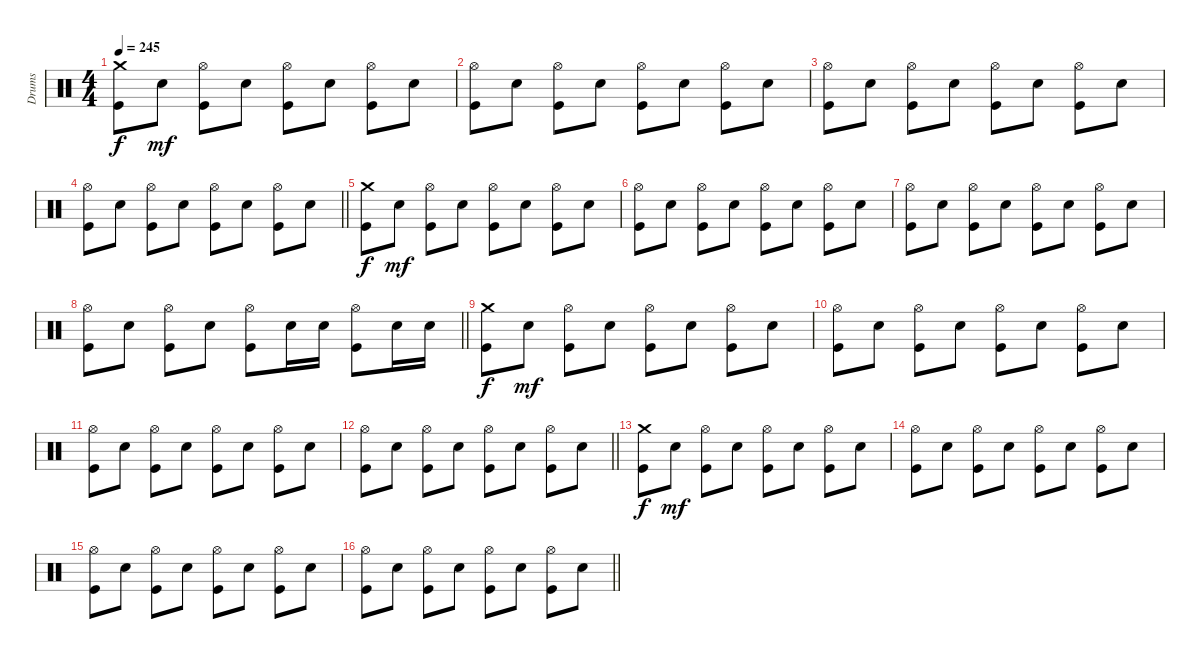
\track ("Drums" "Drums") {instrument percussion}
\staff {score}
\articulation defaults
\ts (4 4)
\tempo 245
\clef neutral
\ks c
("Crash medium (hit)" "Kick (hit)").8{dy f} "Snare (hit) 2".8{dy mf} ("Hi-Hat (open)" "Kick (hit)").8 "Snare (hit) 2".8 ("Hi-Hat (open)" "Kick (hit)").8 "Snare (hit) 2".8 ("Hi-Hat (open)" "Kick (hit)").8 "Snare (hit) 2".8 |
("Hi-Hat (open)" "Kick (hit)").8 "Snare (hit) 2".8 ("Hi-Hat (open)" "Kick (hit)").8 "Snare (hit) 2".8 ("Hi-Hat (open)" "Kick (hit)").8 "Snare (hit) 2".8 ("Hi-Hat (open)" "Kick (hit)").8 "Snare (hit) 2".8 |
("Hi-Hat (open)" "Kick (hit)").8 "Snare (hit) 2".8 ("Hi-Hat (open)" "Kick (hit)").8 "Snare (hit) 2".8 ("Hi-Hat (open)" "Kick (hit)").8 "Snare (hit) 2".8 ("Hi-Hat (open)" "Kick (hit)").8 "Snare (hit) 2".8 |
\barLineRight lightlight
("Hi-Hat (open)" "Kick (hit)").8 "Snare (hit) 2".8 ("Hi-Hat (open)" "Kick (hit)").8 "Snare (hit) 2".8 ("Hi-Hat (open)" "Kick (hit)").8 "Snare (hit) 2".8 ("Hi-Hat (open)" "Kick (hit)").8 "Snare (hit) 2".8 |
("Crash medium (hit)" "Kick (hit)").8{dy f} "Snare (hit) 2".8{dy mf} ("Hi-Hat (open)" "Kick (hit)").8 "Snare (hit) 2".8 ("Hi-Hat (open)" "Kick (hit)").8 "Snare (hit) 2".8 ("Hi-Hat (open)" "Kick (hit)").8 "Snare (hit) 2".8 |
("Hi-Hat (open)" "Kick (hit)").8 "Snare (hit) 2".8 ("Hi-Hat (open)" "Kick (hit)").8 "Snare (hit) 2".8 ("Hi-Hat (open)" "Kick (hit)").8 "Snare (hit) 2".8 ("Hi-Hat (open)" "Kick (hit)").8 "Snare (hit) 2".8 |
("Hi-Hat (open)" "Kick (hit)").8 "Snare (hit) 2".8 ("Hi-Hat (open)" "Kick (hit)").8 "Snare (hit) 2".8 ("Hi-Hat (open)" "Kick (hit)").8 "Snare (hit) 2".8 ("Hi-Hat (open)" "Kick (hit)").8 "Snare (hit) 2".8 |
\barLineRight lightlight
("Hi-Hat (open)" "Kick (hit)").8 "Snare (hit) 2".8 ("Hi-Hat (open)" "Kick (hit)").8 "Snare (hit) 2".8 ("Hi-Hat (open)" "Kick (hit)").8 "Snare (hit) 2".16 "Snare (hit) 2".16 ("Hi-Hat (open)" "Kick (hit)").8 "Snare (hit) 2".16 "Snare (hit) 2".16 |
("Crash medium (hit)" "Kick (hit)").8{dy f} "Snare (hit) 2".8{dy mf} ("Hi-Hat (open)" "Kick (hit)").8 "Snare (hit) 2".8 ("Hi-Hat (open)" "Kick (hit)").8 "Snare (hit) 2".8 ("Hi-Hat (open)" "Kick (hit)").8 "Snare (hit) 2".8 |
("Hi-Hat (open)" "Kick (hit)").8 "Snare (hit) 2".8 ("Hi-Hat (open)" "Kick (hit)").8 "Snare (hit) 2".8 ("Hi-Hat (open)" "Kick (hit)").8 "Snare (hit) 2".8 ("Hi-Hat (open)" "Kick (hit)").8 "Snare (hit) 2".8 |
("Hi-Hat (open)" "Kick (hit)").8 "Snare (hit) 2".8 ("Hi-Hat (open)" "Kick (hit)").8 "Snare (hit) 2".8 ("Hi-Hat (open)" "Kick (hit)").8 "Snare (hit) 2".8 ("Hi-Hat (open)" "Kick (hit)").8 "Snare (hit) 2".8 |
\barLineRight lightlight
("Hi-Hat (open)" "Kick (hit)").8 "Snare (hit) 2".8 ("Hi-Hat (open)" "Kick (hit)").8 "Snare (hit) 2".8 ("Hi-Hat (open)" "Kick (hit)").8 "Snare (hit) 2".8 ("Hi-Hat (open)" "Kick (hit)").8 "Snare (hit) 2".8 |
("Crash medium (hit)" "Kick (hit)").8{dy f} "Snare (hit) 2".8{dy mf} ("Hi-Hat (open)" "Kick (hit)").8 "Snare (hit) 2".8 ("Hi-Hat (open)" "Kick (hit)").8 "Snare (hit) 2".8 ("Hi-Hat (open)" "Kick (hit)").8 "Snare (hit) 2".8 |
("Hi-Hat (open)" "Kick (hit)").8 "Snare (hit) 2".8 ("Hi-Hat (open)" "Kick (hit)").8 "Snare (hit) 2".8 ("Hi-Hat (open)" "Kick (hit)").8 "Snare (hit) 2".8 ("Hi-Hat (open)" "Kick (hit)").8 "Snare (hit) 2".8 |
("Hi-Hat (open)" "Kick (hit)").8 "Snare (hit) 2".8 ("Hi-Hat (open)" "Kick (hit)").8 "Snare (hit) 2".8 ("Hi-Hat (open)" "Kick (hit)").8 "Snare (hit) 2".8 ("Hi-Hat (open)" "Kick (hit)").8 "Snare (hit) 2".8 |
\barLineRight lightlight
("Hi-Hat (open)" "Kick (hit)").8 "Snare (hit) 2".8 ("Hi-Hat (open)" "Kick (hit)").8 "Snare (hit) 2".8 ("Hi-Hat (open)" "Kick (hit)").8 "Snare (hit) 2".8 ("Hi-Hat (open)" "Kick (hit)").8 "Snare (hit) 2".8
